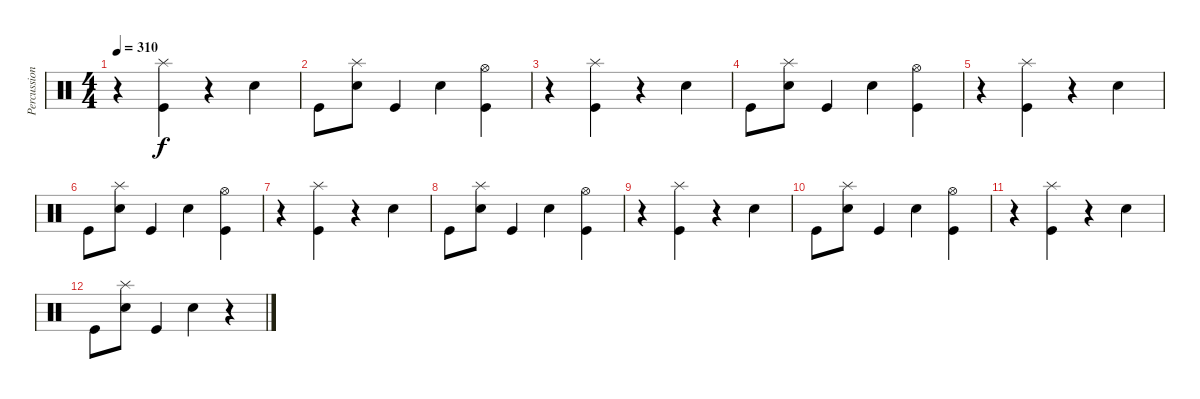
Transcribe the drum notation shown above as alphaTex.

\track ("Percussion" "Percussion") {instrument percussion}
\staff {score}
\articulation defaults
\ts (4 4)
\tempo 310
\clef neutral
\ks c
r.4{dy f} ("Splash (hit)" "Kick (hit)").4 r.4 "Electric Snare (hit)".4 |
"Kick (hit)".8 ("Splash (hit)" "Electric Snare (hit)").8 "Kick (hit)".4 "Electric Snare (hit)".4 ("Hi-Hat (open)" "Kick (hit)").4 |
r.4 ("Splash (hit)" "Kick (hit)").4 r.4 "Electric Snare (hit)".4 |
"Kick (hit)".8 ("Splash (hit)" "Electric Snare (hit)").8 "Kick (hit)".4 "Electric Snare (hit)".4 ("Hi-Hat (open)" "Kick (hit)").4 |
r.4 ("Splash (hit)" "Kick (hit)").4 r.4 "Electric Snare (hit)".4 |
"Kick (hit)".8 ("Splash (hit)" "Electric Snare (hit)").8 "Kick (hit)".4 "Electric Snare (hit)".4 ("Hi-Hat (open)" "Kick (hit)").4 |
r.4 ("Splash (hit)" "Kick (hit)").4 r.4 "Electric Snare (hit)".4 |
"Kick (hit)".8 ("Splash (hit)" "Electric Snare (hit)").8 "Kick (hit)".4 "Electric Snare (hit)".4 ("Hi-Hat (open)" "Kick (hit)").4 |
r.4 ("Splash (hit)" "Kick (hit)").4 r.4 "Electric Snare (hit)".4 |
"Kick (hit)".8 ("Splash (hit)" "Electric Snare (hit)").8 "Kick (hit)".4 "Electric Snare (hit)".4 ("Hi-Hat (open)" "Kick (hit)").4 |
r.4 ("Splash (hit)" "Kick (hit)").4 r.4 "Electric Snare (hit)".4 |
"Kick (hit)".8 ("Splash (hit)" "Electric Snare (hit)").8 "Kick (hit)".4 "Electric Snare (hit)".4 r.4
